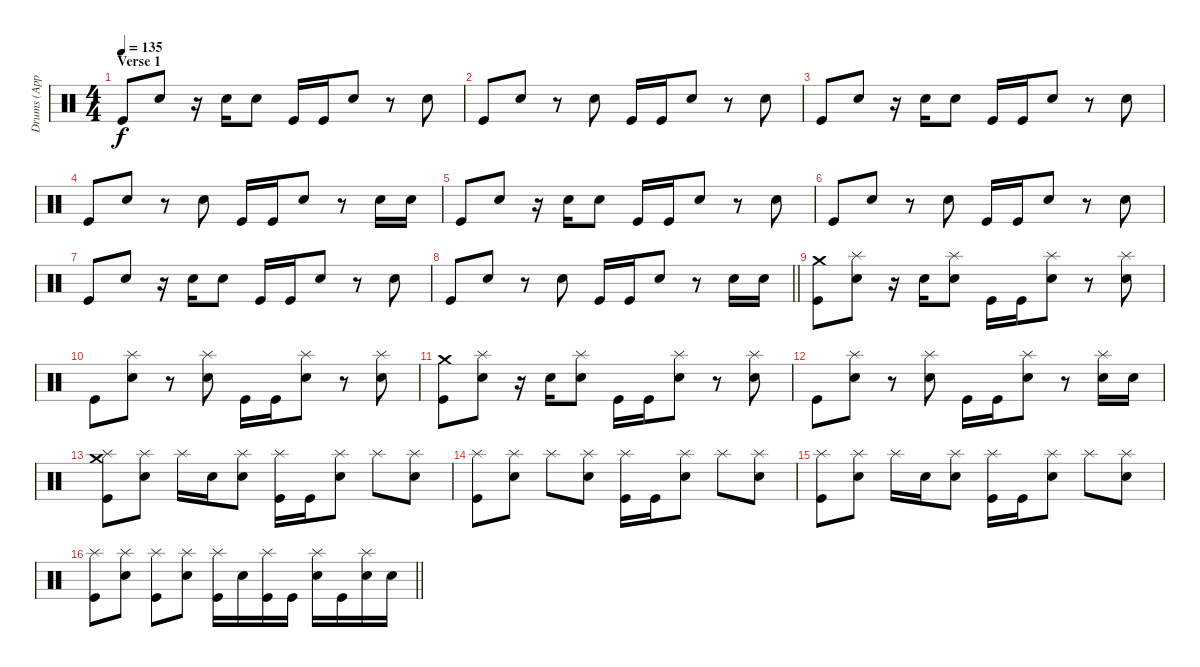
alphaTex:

\track ("Drums (Approx.)" "Drums (App") {instrument percussion}
\staff {score}
\articulation defaults
\ts (4 4)
\section ("" "Verse 1")
\tempo 135
\clef neutral
\ks c "Kick (hit)".8{dy f} "Electric Snare (hit)".8
r.16 "Electric Snare (hit)".16 "Electric Snare (hit)".8 "Kick (hit)".16 "Kick (hit)".16 "Electric Snare (hit)".8 r.8 "Electric Snare (hit)".8 |
"Kick (hit)".8 "Electric Snare (hit)".8 r.8 "Electric Snare (hit)".8 "Kick (hit)".16 "Kick (hit)".16 "Electric Snare (hit)".8 r.8 "Electric Snare (hit)".8 |
"Kick (hit)".8 "Electric Snare (hit)".8 r.16 "Electric Snare (hit)".16 "Electric Snare (hit)".8 "Kick (hit)".16 "Kick (hit)".16 "Electric Snare (hit)".8 r.8 "Electric Snare (hit)".8 |
"Kick (hit)".8 "Electric Snare (hit)".8 r.8 "Electric Snare (hit)".8 "Kick (hit)".16 "Kick (hit)".16 "Electric Snare (hit)".8 r.8 "Electric Snare (hit)".16 "Electric Snare (hit)".16 |
"Kick (hit)".8 "Electric Snare (hit)".8 r.16 "Electric Snare (hit)".16 "Electric Snare (hit)".8 "Kick (hit)".16 "Kick (hit)".16 "Electric Snare (hit)".8 r.8 "Electric Snare (hit)".8 |
"Kick (hit)".8 "Electric Snare (hit)".8 r.8 "Electric Snare (hit)".8 "Kick (hit)".16 "Kick (hit)".16 "Electric Snare (hit)".8 r.8 "Electric Snare (hit)".8 |
"Kick (hit)".8 "Electric Snare (hit)".8 r.16 "Electric Snare (hit)".16 "Electric Snare (hit)".8 "Kick (hit)".16 "Kick (hit)".16 "Electric Snare (hit)".8 r.8 "Electric Snare (hit)".8 |
\barLineRight lightlight "Kick (hit)".8 "Electric Snare (hit)".8
r.8 "Electric Snare (hit)".8 "Kick (hit)".16 "Kick (hit)".16 "Electric Snare (hit)".8 r.8 "Electric Snare (hit)".16 "Electric Snare (hit)".16 |
\section ("" "")
("Crash medium (hit)" "Kick (hit)").8 ("Splash (hit)" "Electric Snare (hit)").8 r.16 "Electric Snare (hit)".16 ("Splash (hit)" "Electric Snare (hit)").8 "Kick (hit)".16 "Kick (hit)".16 ("Splash (hit)" "Electric Snare (hit)").8 r.8 ("Splash (hit)" "Electric Snare (hit)").8 |
"Kick (hit)".8 ("Splash (hit)" "Electric Snare (hit)").8 r.8 ("Splash (hit)" "Electric Snare (hit)").8 "Kick (hit)".16 "Kick (hit)".16 ("Splash (hit)" "Electric Snare (hit)").8 r.8 ("Splash (hit)" "Electric Snare (hit)").8 |
("Crash medium (hit)" "Kick (hit)").8 ("Splash (hit)" "Electric Snare (hit)").8 r.16 "Electric Snare (hit)".16 ("Splash (hit)" "Electric Snare (hit)").8 "Kick (hit)".16 "Kick (hit)".16 ("Splash (hit)" "Electric Snare (hit)").8 r.8 ("Splash (hit)" "Electric Snare (hit)").8 |
"Kick (hit)".8 ("Splash (hit)" "Electric Snare (hit)").8 r.8 ("Splash (hit)" "Electric Snare (hit)").8 "Kick (hit)".16 "Kick (hit)".16 ("Splash (hit)" "Electric Snare (hit)").8 r.8 ("Splash (hit)" "Electric Snare (hit)").16 "Electric Snare (hit)".16 |
("Crash medium (hit)" "Splash (hit)" "Kick (hit)").8 ("Splash (hit)" "Electric Snare (hit)").8 "Splash (hit)".16 "Electric Snare (hit)".16 ("Splash (hit)" "Electric Snare (hit)").8 ("Splash (hit)" "Kick (hit)").16 "Kick (hit)".16 ("Splash (hit)" "Electric Snare (hit)").8 "Splash (hit)".8 ("Splash (hit)" "Electric Snare (hit)").8 |
("Splash (hit)" "Kick (hit)").8 ("Splash (hit)" "Electric Snare (hit)").8 "Splash (hit)".8 ("Splash (hit)" "Electric Snare (hit)").8 ("Splash (hit)" "Kick (hit)").16 "Kick (hit)".16 ("Splash (hit)" "Electric Snare (hit)").8 "Splash (hit)".8 ("Splash (hit)" "Electric Snare (hit)").8 |
("Splash (hit)" "Kick (hit)").8 ("Splash (hit)" "Electric Snare (hit)").8 "Splash (hit)".16 "Electric Snare (hit)".16 ("Splash (hit)" "Electric Snare (hit)").8 ("Splash (hit)" "Kick (hit)").16 "Kick (hit)".16 ("Splash (hit)" "Electric Snare (hit)").8 "Splash (hit)".8 ("Splash (hit)" "Electric Snare (hit)").8 |
\barLineRight lightlight
("Splash (hit)" "Kick (hit)").8 ("Splash (hit)" "Electric Snare (hit)").8 ("Splash (hit)" "Kick (hit)").8 ("Splash (hit)" "Electric Snare (hit)").8 ("Splash (hit)" "Kick (hit)").16 "Electric Snare (hit)".16 ("Splash (hit)" "Kick (hit)").16 "Kick (hit)".16 ("Splash (hit)" "Electric Snare (hit)").16 "Kick (hit)".16 ("Splash (hit)" "Electric Snare (hit)").16 "Electric Snare (hit)".16
